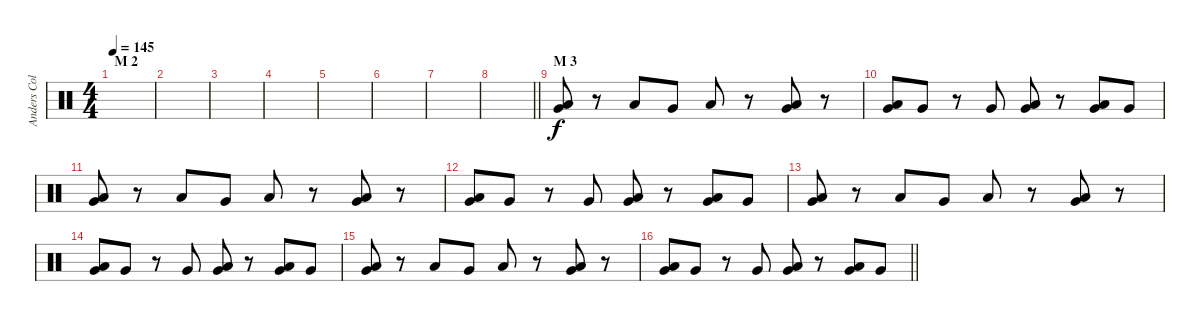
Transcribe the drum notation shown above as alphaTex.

\track ("Anders Colsefni" "Anders Col") {instrument percussion}
\staff {score}
\articulation defaults
\ts (4 4)
\section ("" "M 2")
\tempo 145
\clef neutral
\ks c
|
|
|
|
|
|
|
\barLineRight lightlight
|
\section ("" "M 3")
("Very Low Tom (hit)" "Low Floor Tom (hit)").8 r.8 "Low Floor Tom (hit)".8 "Very Low Tom (hit)".8 "Low Floor Tom (hit)".8 r.8 ("Very Low Tom (hit)" "Low Floor Tom (hit)").8 r.8 |
("Very Low Tom (hit)" "Low Floor Tom (hit)").8 "Very Low Tom (hit)".8 r.8 "Very Low Tom (hit)".8 ("Very Low Tom (hit)" "Low Floor Tom (hit)").8 r.8 ("Very Low Tom (hit)" "Low Floor Tom (hit)").8 "Very Low Tom (hit)".8 |
("Very Low Tom (hit)" "Low Floor Tom (hit)").8 r.8 "Low Floor Tom (hit)".8 "Very Low Tom (hit)".8 "Low Floor Tom (hit)".8 r.8 ("Very Low Tom (hit)" "Low Floor Tom (hit)").8 r.8 |
("Very Low Tom (hit)" "Low Floor Tom (hit)").8 "Very Low Tom (hit)".8 r.8 "Very Low Tom (hit)".8 ("Very Low Tom (hit)" "Low Floor Tom (hit)").8 r.8 ("Very Low Tom (hit)" "Low Floor Tom (hit)").8 "Very Low Tom (hit)".8 |
("Very Low Tom (hit)" "Low Floor Tom (hit)").8 r.8 "Low Floor Tom (hit)".8 "Very Low Tom (hit)".8 "Low Floor Tom (hit)".8 r.8 ("Very Low Tom (hit)" "Low Floor Tom (hit)").8 r.8 |
("Very Low Tom (hit)" "Low Floor Tom (hit)").8 "Very Low Tom (hit)".8 r.8 "Very Low Tom (hit)".8 ("Very Low Tom (hit)" "Low Floor Tom (hit)").8 r.8 ("Very Low Tom (hit)" "Low Floor Tom (hit)").8 "Very Low Tom (hit)".8 |
("Very Low Tom (hit)" "Low Floor Tom (hit)").8 r.8 "Low Floor Tom (hit)".8 "Very Low Tom (hit)".8 "Low Floor Tom (hit)".8 r.8 ("Very Low Tom (hit)" "Low Floor Tom (hit)").8 r.8 |
\barLineRight lightlight
("Very Low Tom (hit)" "Low Floor Tom (hit)").8 "Very Low Tom (hit)".8 r.8 "Very Low Tom (hit)".8 ("Very Low Tom (hit)" "Low Floor Tom (hit)").8 r.8 ("Very Low Tom (hit)" "Low Floor Tom (hit)").8 "Very Low Tom (hit)".8
